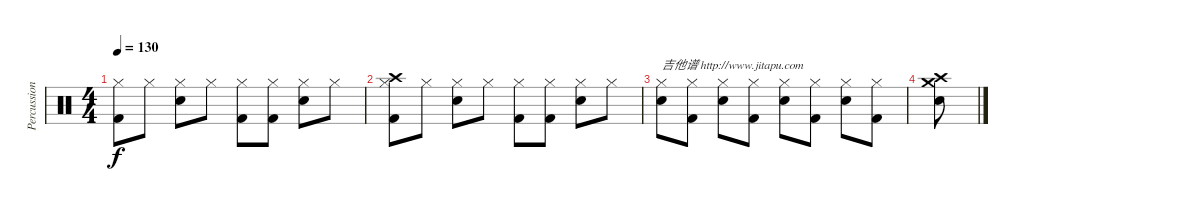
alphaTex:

\track ("Percussion" "Percussion") {instrument percussion}
\staff {score}
\articulation defaults
\ts (4 4)
\tempo 130
\clef neutral
\ks c
("Kick (hit) 2" "Hi-Hat (closed)").8{dy f} "Hi-Hat (closed)".8 ("Hi-Hat (closed)" "Electric Snare (hit)").8 "Hi-Hat (closed)".8 ("Hi-Hat (closed)" "Kick (hit) 2").8 ("Hi-Hat (closed)" "Kick (hit) 2").8 ("Hi-Hat (closed)" "Electric Snare (hit)").8 "Hi-Hat (closed)".8 |
("Kick (hit) 2" "Hi-Hat (closed)" "Crash high (hit)").8 "Hi-Hat (closed)".8 ("Hi-Hat (closed)" "Electric Snare (hit)").8 "Hi-Hat (closed)".8 ("Hi-Hat (closed)" "Kick (hit) 2").8 ("Hi-Hat (closed)" "Kick (hit) 2").8 ("Hi-Hat (closed)" "Electric Snare (hit)").8 "Hi-Hat (closed)".8 |
("Electric Snare (hit)" "Hi-Hat (closed)").8{txt "吉他谱 http://www.jitapu.com"} ("Hi-Hat (closed)" "Kick (hit) 2").8 ("Hi-Hat (closed)" "Electric Snare (hit)").8 ("Hi-Hat (closed)" "Kick (hit) 2").8 ("Hi-Hat (closed)" "Electric Snare (hit)").8 ("Hi-Hat (closed)" "Kick (hit) 2").8 ("Hi-Hat (closed)" "Electric Snare (hit)").8 ("Hi-Hat (closed)" "Kick (hit) 2").8 |
("Crash medium (hit)" "Electric Snare (hit)" "Crash high (hit)").8
